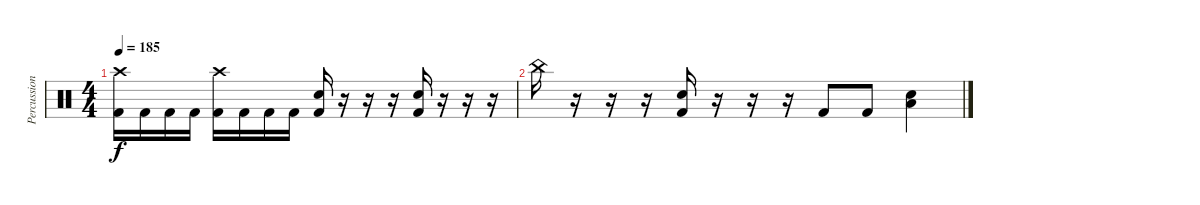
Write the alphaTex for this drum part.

\track ("Percussion" "Percussion") {instrument percussion}
\staff {score}
\articulation defaults
\ts (4 4)
\tempo 185
\clef neutral
\ks c
("Crash high (hit)" "Kick (hit) 2").16{dy f} "Kick (hit) 2".16 "Kick (hit) 2".16 "Kick (hit) 2".16 ("Crash high (hit)" "Kick (hit) 2").16 "Kick (hit) 2".16 "Kick (hit) 2".16 "Kick (hit) 2".16 ("Snare (hit) 2" "Kick (hit) 2").16 r.16 r.16 r.16 ("Snare (hit) 2" "Kick (hit) 2").16 r.16 r.16 r.16 |
"China (hit)".16 r.16 r.16 r.16 ("Snare (hit) 2" "Kick (hit) 2").16 r.16 r.16 r.16 "Kick (hit) 2".8 "Kick (hit) 2".8 ("Snare (hit) 2" "Low Tom (hit)").4
